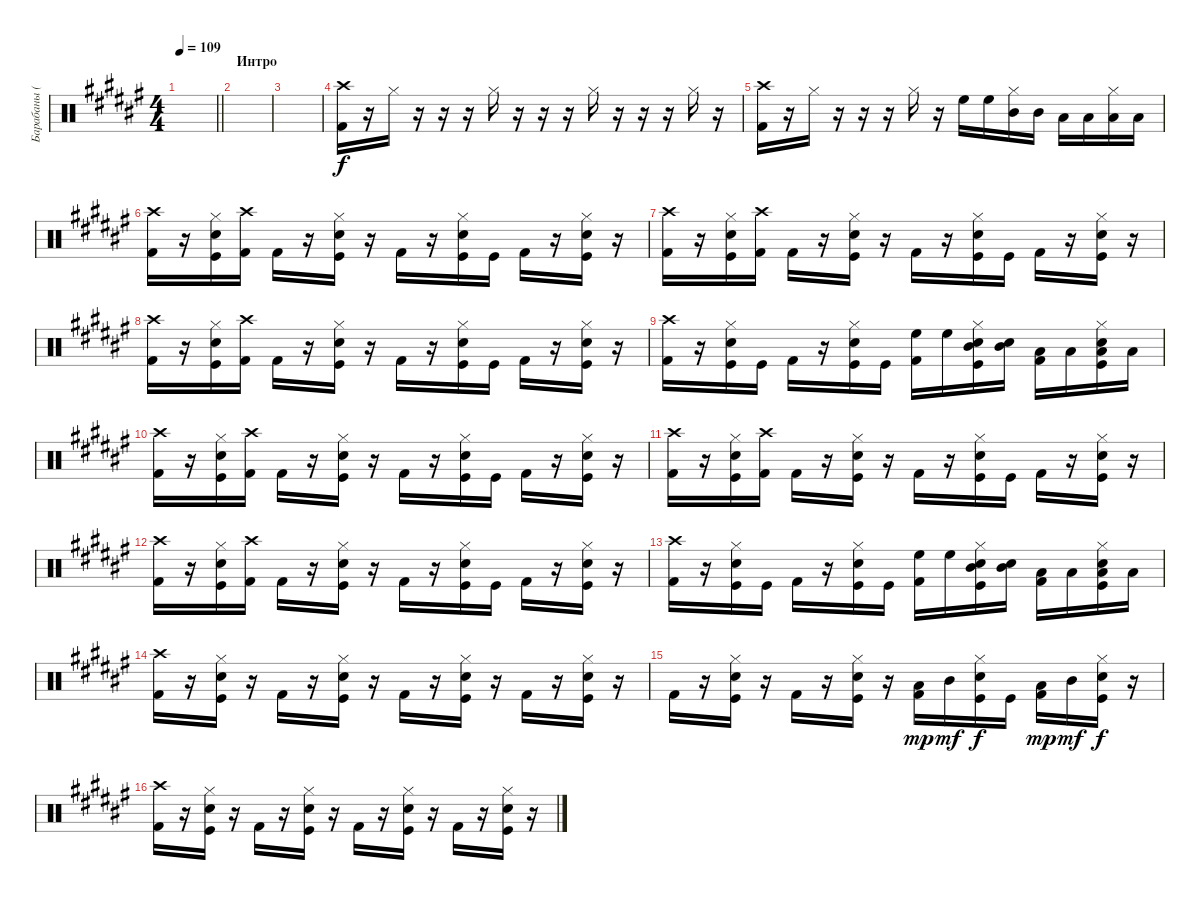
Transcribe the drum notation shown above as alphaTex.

\track ("Барабаны (Н.Лысов)" "Барабаны (") {instrument percussion}
\staff {score}
\articulation defaults
\ts (4 4)
\tempo 109
\clef neutral
\barLineRight lightlight
\ks f#
|
\section ("" "Интро")
|
|
("Crash high (hit)" "Kick (hit) 2").16 r.16 "Hi-Hat (closed)".16 r.16 r.16 r.16 "Hi-Hat (closed)".16 r.16 r.16 r.16 "Hi-Hat (closed)".16 r.16 r.16 r.16 "Hi-Hat (closed)".16 r.16 |
("Crash high (hit)" "Kick (hit) 2").16 r.16 "Hi-Hat (closed)".16 r.16 r.16 r.16 "Hi-Hat (closed)".16 r.16 "High Floor Tom (hit)".16 "High Floor Tom (hit)".16 ("Hi-Hat (closed)" "Mid Tom (hit)").16 "Mid Tom (hit)".16 "Low Tom (hit)".16 "Low Tom (hit)".16 ("Hi-Hat (closed)" "Low Floor Tom (hit)").16 "Low Floor Tom (hit)".16 |
("Crash high (hit)" "Kick (hit) 2").16 r.16 ("Hi-Hat (closed)" "Snare (hit) 2" "Kick (hit)").16 ("Crash high (hit)" "Kick (hit) 2").16 "Kick (hit) 2".16 r.16 ("Hi-Hat (closed)" "Snare (hit) 2" "Kick (hit)").16 r.16 "Kick (hit) 2".16 r.16 ("Hi-Hat (closed)" "Snare (hit) 2" "Kick (hit)").16 "Kick (hit)".16 "Kick (hit) 2".16 r.16 ("Hi-Hat (closed)" "Snare (hit) 2" "Kick (hit)").16 r.16 |
("Crash high (hit)" "Kick (hit) 2").16 r.16 ("Hi-Hat (closed)" "Snare (hit) 2" "Kick (hit)").16 ("Crash high (hit)" "Kick (hit) 2").16 "Kick (hit) 2".16 r.16 ("Hi-Hat (closed)" "Snare (hit) 2" "Kick (hit)").16 r.16 "Kick (hit) 2".16 r.16 ("Hi-Hat (closed)" "Snare (hit) 2" "Kick (hit)").16 "Kick (hit)".16 "Kick (hit) 2".16 r.16 ("Hi-Hat (closed)" "Snare (hit) 2" "Kick (hit)").16 r.16 |
("Crash high (hit)" "Kick (hit) 2").16 r.16 ("Hi-Hat (closed)" "Snare (hit) 2" "Kick (hit)").16 ("Crash high (hit)" "Kick (hit) 2").16 "Kick (hit) 2".16 r.16 ("Hi-Hat (closed)" "Snare (hit) 2" "Kick (hit)").16 r.16 "Kick (hit) 2".16 r.16 ("Hi-Hat (closed)" "Snare (hit) 2" "Kick (hit)").16 "Kick (hit)".16 "Kick (hit) 2".16 r.16 ("Hi-Hat (closed)" "Snare (hit) 2" "Kick (hit)").16 r.16 |
("Crash high (hit)" "Kick (hit) 2").16 r.16 ("Hi-Hat (closed)" "Snare (hit) 2" "Kick (hit)").16 "Kick (hit)".16 "Kick (hit) 2".16 r.16 ("Hi-Hat (closed)" "Snare (hit) 2" "Kick (hit)").16 "Kick (hit)".16 ("High Floor Tom (hit)" "Kick (hit) 2").16 "High Floor Tom (hit)".16 ("Hi-Hat (closed)" "Snare (hit) 2" "Mid Tom (hit)" "Kick (hit)").16 ("Snare (hit) 2" "Mid Tom (hit)").16 ("Low Tom (hit)" "Kick (hit) 2").16 "Low Tom (hit)".16 ("Hi-Hat (closed)" "Snare (hit) 2" "Low Floor Tom (hit)" "Kick (hit)").16 "Low Floor Tom (hit)".16 |
("Crash high (hit)" "Kick (hit) 2").16 r.16 ("Hi-Hat (closed)" "Snare (hit) 2" "Kick (hit)").16 ("Crash high (hit)" "Kick (hit) 2").16 "Kick (hit) 2".16 r.16 ("Hi-Hat (closed)" "Snare (hit) 2" "Kick (hit)").16 r.16 "Kick (hit) 2".16 r.16 ("Hi-Hat (closed)" "Snare (hit) 2" "Kick (hit)").16 "Kick (hit)".16 "Kick (hit) 2".16 r.16 ("Hi-Hat (closed)" "Snare (hit) 2" "Kick (hit)").16 r.16 |
("Crash high (hit)" "Kick (hit) 2").16 r.16 ("Hi-Hat (closed)" "Snare (hit) 2" "Kick (hit)").16 ("Crash high (hit)" "Kick (hit) 2").16 "Kick (hit) 2".16 r.16 ("Hi-Hat (closed)" "Snare (hit) 2" "Kick (hit)").16 r.16 "Kick (hit) 2".16 r.16 ("Hi-Hat (closed)" "Snare (hit) 2" "Kick (hit)").16 "Kick (hit)".16 "Kick (hit) 2".16 r.16 ("Hi-Hat (closed)" "Snare (hit) 2" "Kick (hit)").16 r.16 |
("Crash high (hit)" "Kick (hit) 2").16 r.16 ("Hi-Hat (closed)" "Snare (hit) 2" "Kick (hit)").16 ("Crash high (hit)" "Kick (hit) 2").16 "Kick (hit) 2".16 r.16 ("Hi-Hat (closed)" "Snare (hit) 2" "Kick (hit)").16 r.16 "Kick (hit) 2".16 r.16 ("Hi-Hat (closed)" "Snare (hit) 2" "Kick (hit)").16 "Kick (hit)".16 "Kick (hit) 2".16 r.16 ("Hi-Hat (closed)" "Snare (hit) 2" "Kick (hit)").16 r.16 |
("Crash high (hit)" "Kick (hit) 2").16 r.16 ("Hi-Hat (closed)" "Snare (hit) 2" "Kick (hit)").16 "Kick (hit)".16 "Kick (hit) 2".16 r.16 ("Hi-Hat (closed)" "Snare (hit) 2" "Kick (hit)").16 "Kick (hit)".16 ("High Floor Tom (hit)" "Kick (hit) 2").16 "High Floor Tom (hit)".16 ("Hi-Hat (closed)" "Snare (hit) 2" "Mid Tom (hit)" "Kick (hit)").16 ("Snare (hit) 2" "Mid Tom (hit)").16 ("Low Tom (hit)" "Kick (hit) 2").16 "Low Tom (hit)".16 ("Hi-Hat (closed)" "Snare (hit) 2" "Low Floor Tom (hit)" "Kick (hit)").16 "Low Floor Tom (hit)".16 |
("Crash high (hit)" "Kick (hit) 2").16 r.16 ("Hi-Hat (closed)" "Snare (hit) 2" "Kick (hit)").16 r.16 "Kick (hit) 2".16 r.16 ("Hi-Hat (closed)" "Snare (hit) 2" "Kick (hit)").16 r.16 "Kick (hit) 2".16 r.16 ("Hi-Hat (closed)" "Snare (hit) 2" "Kick (hit)").16 r.16 "Kick (hit) 2".16 r.16 ("Hi-Hat (closed)" "Snare (hit) 2" "Kick (hit)").16 r.16 |
"Kick (hit) 2".16 r.16 ("Hi-Hat (closed)" "Snare (hit) 2" "Kick (hit)").16 r.16 "Kick (hit) 2".16 r.16 ("Hi-Hat (closed)" "Snare (hit) 2" "Kick (hit)").16 r.16 ("Low Tom (hit)" "Kick (hit) 2").16{dy mp} "Mid Tom (hit)".16{dy mf} ("Hi-Hat (closed)" "Snare (hit) 2" "Kick (hit)").16{dy f} "Kick (hit)".16 ("Low Tom (hit)" "Kick (hit) 2").16{dy mp} "Mid Tom (hit)".16{dy mf} ("Hi-Hat (closed)" "Snare (hit) 2" "Kick (hit)").16{dy f} r.16 |
("Crash high (hit)" "Kick (hit) 2").16 r.16 ("Hi-Hat (closed)" "Snare (hit) 2" "Kick (hit)").16 r.16 "Kick (hit) 2".16 r.16 ("Hi-Hat (closed)" "Snare (hit) 2" "Kick (hit)").16 r.16 "Kick (hit) 2".16 r.16 ("Hi-Hat (closed)" "Snare (hit) 2" "Kick (hit)").16 r.16 "Kick (hit) 2".16 r.16 ("Hi-Hat (closed)" "Snare (hit) 2" "Kick (hit)").16 r.16
